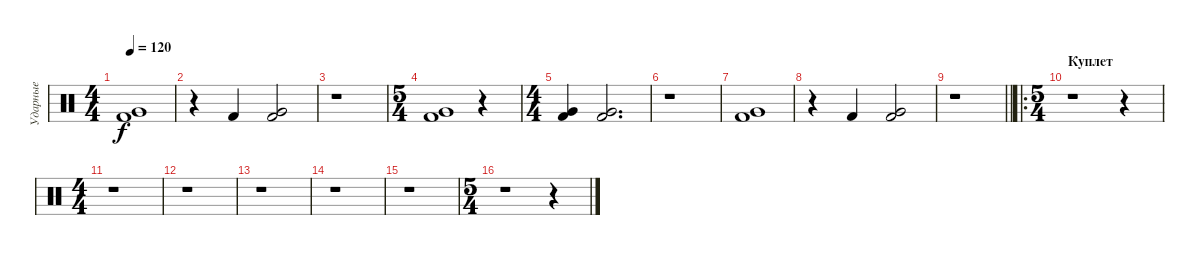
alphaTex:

\track ("Ударные" "Ударные") {instrument percussion}
\staff {score}
\articulation defaults
\ts (4 4)
\tempo 120
\clef neutral
\ks c
("Very Low Tom (hit)" "Kick (hit) 2").1{dy f} |
r.4 "Kick (hit) 2".4 ("Very Low Tom (hit)" "Kick (hit) 2").2 |
r.1 |
\ts (5 4)
("Very Low Tom (hit)" "Kick (hit) 2").1 r.4 |
\ts (4 4)
("Very Low Tom (hit)" "Kick (hit) 2").4 ("Very Low Tom (hit)" "Kick (hit) 2").2{d} |
r.1 |
("Very Low Tom (hit)" "Kick (hit) 2").1 |
r.4 "Kick (hit) 2".4 ("Very Low Tom (hit)" "Kick (hit) 2").2 |
\barLineRight lightlight
r.1 |
\ro
\ts (5 4)
\section ("" "Куплет")
r.1 r.4 |
\ts (4 4)
r.1 |
r.1 |
r.1 |
r.1 |
r.1 |
\ts (5 4)
r.1 r.4
